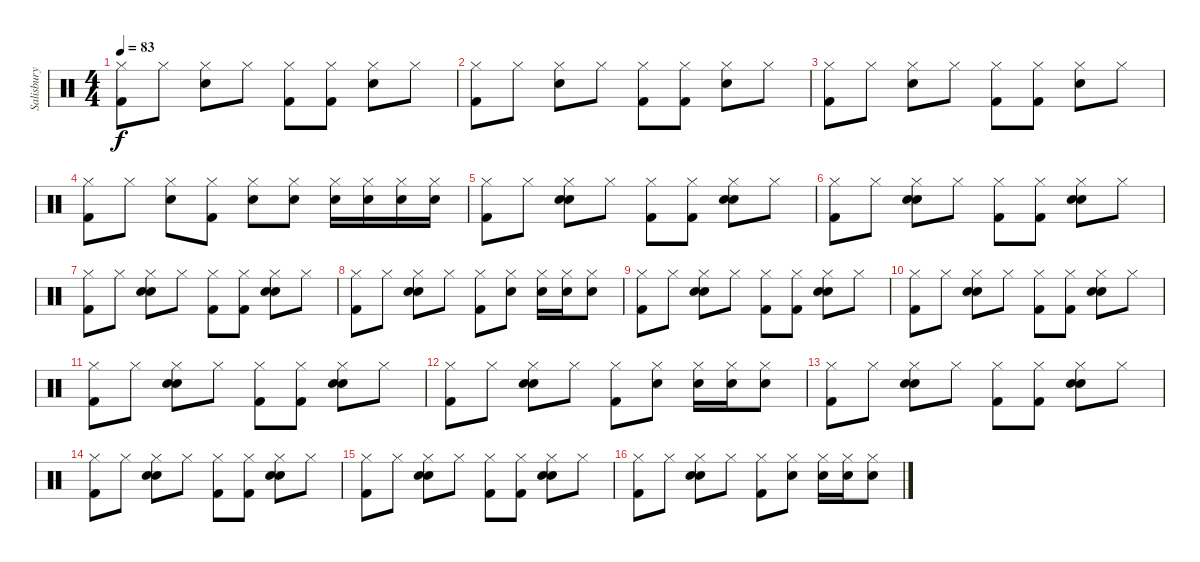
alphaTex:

\track ("Salisbury" "Salisbury") {instrument percussion}
\staff {score}
\articulation defaults
\ts (4 4)
\tempo 83
\clef neutral
\ks c
("Hi-Hat (closed)" "Kick (hit) 2").8{dy f} "Hi-Hat (closed)".8 ("Hi-Hat (closed)" "Electric Snare (hit)").8 "Hi-Hat (closed)".8 ("Hi-Hat (closed)" "Kick (hit) 2").8 ("Hi-Hat (closed)" "Kick (hit) 2").8 ("Hi-Hat (closed)" "Electric Snare (hit)").8 "Hi-Hat (closed)".8 |
("Hi-Hat (closed)" "Kick (hit) 2").8 "Hi-Hat (closed)".8 ("Hi-Hat (closed)" "Electric Snare (hit)").8 "Hi-Hat (closed)".8 ("Hi-Hat (closed)" "Kick (hit) 2").8 ("Hi-Hat (closed)" "Kick (hit) 2").8 ("Hi-Hat (closed)" "Electric Snare (hit)").8 "Hi-Hat (closed)".8 |
("Hi-Hat (closed)" "Kick (hit) 2").8 "Hi-Hat (closed)".8 ("Hi-Hat (closed)" "Electric Snare (hit)").8 "Hi-Hat (closed)".8 ("Hi-Hat (closed)" "Kick (hit) 2").8 ("Hi-Hat (closed)" "Kick (hit) 2").8 ("Hi-Hat (closed)" "Electric Snare (hit)").8 "Hi-Hat (closed)".8 |
("Hi-Hat (closed)" "Kick (hit) 2").8 "Hi-Hat (closed)".8 ("Hi-Hat (closed)" "Electric Snare (hit)").8 ("Hi-Hat (closed)" "Kick (hit) 2").8 ("Hi-Hat (closed)" "Electric Snare (hit)").8 ("Hi-Hat (closed)" "Electric Snare (hit)").8 ("Hi-Hat (closed)" "Electric Snare (hit)").16 ("Hi-Hat (closed)" "Electric Snare (hit)").16 ("Hi-Hat (closed)" "Electric Snare (hit)").16 ("Hi-Hat (closed)" "Electric Snare (hit)").16 |
("Hi-Hat (closed)" "Kick (hit) 2").8 "Hi-Hat (closed)".8 ("Hi-Hat (closed)" "Electric Snare (hit)" "Hand Clap (hit)").8 "Hi-Hat (closed)".8 ("Hi-Hat (closed)" "Kick (hit) 2").8 ("Hi-Hat (closed)" "Kick (hit) 2").8 ("Hi-Hat (closed)" "Electric Snare (hit)" "Hand Clap (hit)").8 "Hi-Hat (closed)".8 |
("Hi-Hat (closed)" "Kick (hit) 2").8 "Hi-Hat (closed)".8 ("Hi-Hat (closed)" "Electric Snare (hit)" "Hand Clap (hit)").8 "Hi-Hat (closed)".8 ("Hi-Hat (closed)" "Kick (hit) 2").8 ("Hi-Hat (closed)" "Kick (hit) 2").8 ("Hi-Hat (closed)" "Electric Snare (hit)" "Hand Clap (hit)").8 "Hi-Hat (closed)".8 |
("Hi-Hat (closed)" "Kick (hit) 2").8 "Hi-Hat (closed)".8 ("Hi-Hat (closed)" "Electric Snare (hit)" "Hand Clap (hit)").8 "Hi-Hat (closed)".8 ("Hi-Hat (closed)" "Kick (hit) 2").8 ("Hi-Hat (closed)" "Kick (hit) 2").8 ("Hi-Hat (closed)" "Electric Snare (hit)" "Hand Clap (hit)").8 "Hi-Hat (closed)".8 |
("Hi-Hat (closed)" "Kick (hit) 2").8 "Hi-Hat (closed)".8 ("Hi-Hat (closed)" "Electric Snare (hit)" "Hand Clap (hit)").8 "Hi-Hat (closed)".8 ("Hi-Hat (closed)" "Kick (hit) 2").8 ("Hi-Hat (closed)" "Electric Snare (hit)").8 ("Hi-Hat (closed)" "Electric Snare (hit)").16 ("Hi-Hat (closed)" "Electric Snare (hit)").16 ("Hi-Hat (closed)" "Electric Snare (hit)").8 |
("Hi-Hat (closed)" "Kick (hit) 2").8 "Hi-Hat (closed)".8 ("Hi-Hat (closed)" "Electric Snare (hit)" "Hand Clap (hit)").8 "Hi-Hat (closed)".8 ("Hi-Hat (closed)" "Kick (hit) 2").8 ("Hi-Hat (closed)" "Kick (hit) 2").8 ("Hi-Hat (closed)" "Electric Snare (hit)" "Hand Clap (hit)").8 "Hi-Hat (closed)".8 |
("Hi-Hat (closed)" "Kick (hit) 2").8 "Hi-Hat (closed)".8 ("Hi-Hat (closed)" "Electric Snare (hit)" "Hand Clap (hit)").8 "Hi-Hat (closed)".8 ("Hi-Hat (closed)" "Kick (hit) 2").8 ("Hi-Hat (closed)" "Kick (hit) 2").8 ("Hi-Hat (closed)" "Electric Snare (hit)" "Hand Clap (hit)").8 "Hi-Hat (closed)".8 |
("Hi-Hat (closed)" "Kick (hit) 2").8 "Hi-Hat (closed)".8 ("Hi-Hat (closed)" "Electric Snare (hit)" "Hand Clap (hit)").8 "Hi-Hat (closed)".8 ("Hi-Hat (closed)" "Kick (hit) 2").8 ("Hi-Hat (closed)" "Kick (hit) 2").8 ("Hi-Hat (closed)" "Electric Snare (hit)" "Hand Clap (hit)").8 "Hi-Hat (closed)".8 |
("Hi-Hat (closed)" "Kick (hit) 2").8 "Hi-Hat (closed)".8 ("Hi-Hat (closed)" "Electric Snare (hit)" "Hand Clap (hit)").8 "Hi-Hat (closed)".8 ("Hi-Hat (closed)" "Kick (hit) 2").8 ("Hi-Hat (closed)" "Electric Snare (hit)").8 ("Hi-Hat (closed)" "Electric Snare (hit)").16 ("Hi-Hat (closed)" "Electric Snare (hit)").16 ("Hi-Hat (closed)" "Electric Snare (hit)").8 |
("Hi-Hat (closed)" "Kick (hit) 2").8 "Hi-Hat (closed)".8 ("Hi-Hat (closed)" "Electric Snare (hit)" "Hand Clap (hit)").8 "Hi-Hat (closed)".8 ("Hi-Hat (closed)" "Kick (hit) 2").8 ("Hi-Hat (closed)" "Kick (hit) 2").8 ("Hi-Hat (closed)" "Electric Snare (hit)" "Hand Clap (hit)").8 "Hi-Hat (closed)".8 |
("Hi-Hat (closed)" "Kick (hit) 2").8 "Hi-Hat (closed)".8 ("Hi-Hat (closed)" "Electric Snare (hit)" "Hand Clap (hit)").8 "Hi-Hat (closed)".8 ("Hi-Hat (closed)" "Kick (hit) 2").8 ("Hi-Hat (closed)" "Kick (hit) 2").8 ("Hi-Hat (closed)" "Electric Snare (hit)" "Hand Clap (hit)").8 "Hi-Hat (closed)".8 |
("Hi-Hat (closed)" "Kick (hit) 2").8 "Hi-Hat (closed)".8 ("Hi-Hat (closed)" "Electric Snare (hit)" "Hand Clap (hit)").8 "Hi-Hat (closed)".8 ("Hi-Hat (closed)" "Kick (hit) 2").8 ("Hi-Hat (closed)" "Kick (hit) 2").8 ("Hi-Hat (closed)" "Electric Snare (hit)" "Hand Clap (hit)").8 "Hi-Hat (closed)".8 |
("Hi-Hat (closed)" "Kick (hit) 2").8 "Hi-Hat (closed)".8 ("Hi-Hat (closed)" "Electric Snare (hit)" "Hand Clap (hit)").8 "Hi-Hat (closed)".8 ("Hi-Hat (closed)" "Kick (hit) 2").8 ("Hi-Hat (closed)" "Electric Snare (hit)").8 ("Hi-Hat (closed)" "Electric Snare (hit)").16 ("Hi-Hat (closed)" "Electric Snare (hit)").16 ("Hi-Hat (closed)" "Electric Snare (hit)").8
